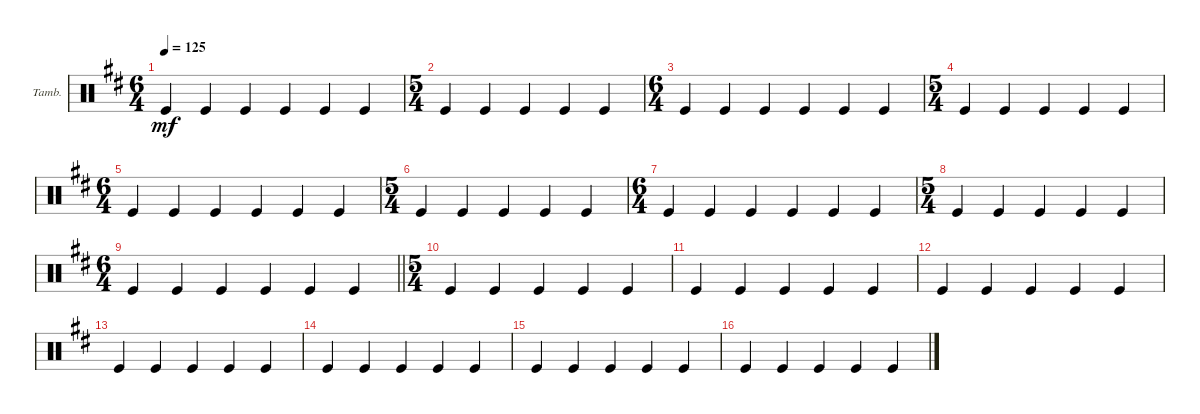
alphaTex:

\defaultSystemsLayout 4
\bracketExtendMode groupsimilarinstruments
\firstSystemTrackNameOrientation horizontal
\otherSystemsTrackNameOrientation horizontal
\track ("ЧИК-ЧИК (ШЕЙКЕР)" "Tamb.") {instrument percussion}
\staff {score}
\articulation defaults
\ts (6 4)
\tempo 125
\clef neutral
\ks bminor "Kick (hit)".4{dy mf} "Kick (hit)".4 "Kick (hit)".4 "Kick (hit)".4 "Kick (hit)".4 "Kick (hit)".4
|
\ts (5 4)
"Kick (hit)".4 "Kick (hit)".4 "Kick (hit)".4 "Kick (hit)".4 "Kick (hit)".4 |
\ts (6 4)
"Kick (hit)".4 "Kick (hit)".4 "Kick (hit)".4 "Kick (hit)".4 "Kick (hit)".4 "Kick (hit)".4 |
\ts (5 4)
"Kick (hit)".4 "Kick (hit)".4 "Kick (hit)".4 "Kick (hit)".4 "Kick (hit)".4 |
\ts (6 4)
"Kick (hit)".4 "Kick (hit)".4 "Kick (hit)".4 "Kick (hit)".4 "Kick (hit)".4 "Kick (hit)".4 |
\ts (5 4)
"Kick (hit)".4 "Kick (hit)".4 "Kick (hit)".4 "Kick (hit)".4 "Kick (hit)".4 |
\ts (6 4)
"Kick (hit)".4 "Kick (hit)".4 "Kick (hit)".4 "Kick (hit)".4 "Kick (hit)".4 "Kick (hit)".4 |
\ts (5 4)
"Kick (hit)".4 "Kick (hit)".4 "Kick (hit)".4 "Kick (hit)".4 "Kick (hit)".4 |
\ts (6 4)
\barLineRight lightlight "Kick (hit)".4 "Kick (hit)".4 "Kick (hit)".4 "Kick (hit)".4 "Kick (hit)".4 "Kick (hit)".4
|
\ts (5 4)
"Kick (hit)".4 "Kick (hit)".4 "Kick (hit)".4 "Kick (hit)".4 "Kick (hit)".4 |
"Kick (hit)".4 "Kick (hit)".4 "Kick (hit)".4 "Kick (hit)".4 "Kick (hit)".4 |
"Kick (hit)".4 "Kick (hit)".4 "Kick (hit)".4 "Kick (hit)".4 "Kick (hit)".4 |
"Kick (hit)".4 "Kick (hit)".4 "Kick (hit)".4 "Kick (hit)".4 "Kick (hit)".4 |
"Kick (hit)".4 "Kick (hit)".4 "Kick (hit)".4 "Kick (hit)".4 "Kick (hit)".4 |
"Kick (hit)".4 "Kick (hit)".4 "Kick (hit)".4 "Kick (hit)".4 "Kick (hit)".4 |
"Kick (hit)".4 "Kick (hit)".4 "Kick (hit)".4 "Kick (hit)".4 "Kick (hit)".4
